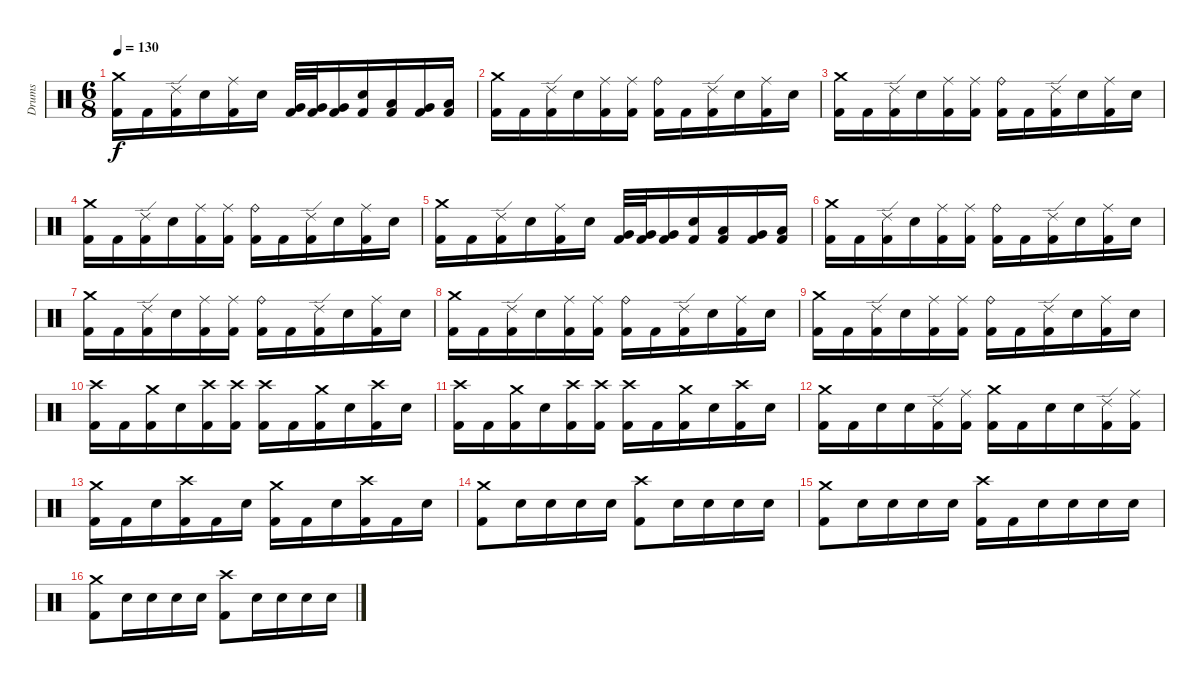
\track ("Drums" "Drums") {instrument percussion}
\staff {score}
\articulation defaults
\ts (6 8)
\tempo 130
\clef neutral
\ks c
("Crash medium (hit)" "Kick (hit) 2").16{dy f} "Kick (hit) 2".16 ("Ride (edge) 2" "Kick (hit) 2").16 "Electric Snare (hit)".16 ("Ride (middle)" "Kick (hit) 2").16 "Electric Snare (hit)".16 ("Very Low Tom (hit)" "Kick (hit) 2").32 ("Very Low Tom (hit)" "Kick (hit) 2").32 ("Very Low Tom (hit)" "Kick (hit) 2").16 ("Electric Snare (hit)" "Kick (hit) 2").16 ("Low Tom (hit)" "Kick (hit) 2").16 ("Very Low Tom (hit)" "Kick (hit) 2").16 ("Low Floor Tom (hit)" "Kick (hit) 2").16 |
("Crash medium (hit)" "Kick (hit) 2").16 "Kick (hit) 2".16 ("Ride (edge) 2" "Kick (hit) 2").16 "Electric Snare (hit)".16 ("Ride (middle)" "Kick (hit) 2").16 ("Ride (middle)" "Kick (hit) 2").16 ("Ride (bell)" "Kick (hit) 2").16 "Kick (hit) 2".16 ("Ride (edge) 2" "Kick (hit) 2").16 "Electric Snare (hit)".16 ("Ride (middle)" "Kick (hit) 2").16 "Electric Snare (hit)".16 |
("Crash medium (hit)" "Kick (hit) 2").16 "Kick (hit) 2".16 ("Ride (edge) 2" "Kick (hit) 2").16 "Electric Snare (hit)".16 ("Ride (middle)" "Kick (hit) 2").16 ("Ride (middle)" "Kick (hit) 2").16 ("Ride (bell)" "Kick (hit) 2").16 "Kick (hit) 2".16 ("Ride (edge) 2" "Kick (hit) 2").16 "Electric Snare (hit)".16 ("Ride (middle)" "Kick (hit) 2").16 "Electric Snare (hit)".16 |
("Crash medium (hit)" "Kick (hit) 2").16 "Kick (hit) 2".16 ("Ride (edge) 2" "Kick (hit) 2").16 "Electric Snare (hit)".16 ("Ride (middle)" "Kick (hit) 2").16 ("Ride (middle)" "Kick (hit) 2").16 ("Ride (bell)" "Kick (hit) 2").16 "Kick (hit) 2".16 ("Ride (edge) 2" "Kick (hit) 2").16 "Electric Snare (hit)".16 ("Ride (middle)" "Kick (hit) 2").16 "Electric Snare (hit)".16 |
("Crash medium (hit)" "Kick (hit) 2").16 "Kick (hit) 2".16 ("Ride (edge) 2" "Kick (hit) 2").16 "Electric Snare (hit)".16 ("Ride (middle)" "Kick (hit) 2").16 "Electric Snare (hit)".16 ("Very Low Tom (hit)" "Kick (hit) 2").32 ("Very Low Tom (hit)" "Kick (hit) 2").32 ("Very Low Tom (hit)" "Kick (hit) 2").16 ("Electric Snare (hit)" "Kick (hit) 2").16 ("Low Tom (hit)" "Kick (hit) 2").16 ("Very Low Tom (hit)" "Kick (hit) 2").16 ("Low Floor Tom (hit)" "Kick (hit) 2").16 |
("Crash medium (hit)" "Kick (hit) 2").16 "Kick (hit) 2".16 ("Ride (edge) 2" "Kick (hit) 2").16 "Electric Snare (hit)".16 ("Ride (middle)" "Kick (hit) 2").16 ("Ride (middle)" "Kick (hit) 2").16 ("Ride (bell)" "Kick (hit) 2").16 "Kick (hit) 2".16 ("Ride (edge) 2" "Kick (hit) 2").16 "Electric Snare (hit)".16 ("Ride (middle)" "Kick (hit) 2").16 "Electric Snare (hit)".16 |
("Crash medium (hit)" "Kick (hit) 2").16 "Kick (hit) 2".16 ("Ride (edge) 2" "Kick (hit) 2").16 "Electric Snare (hit)".16 ("Ride (middle)" "Kick (hit) 2").16 ("Ride (middle)" "Kick (hit) 2").16 ("Ride (bell)" "Kick (hit) 2").16 "Kick (hit) 2".16 ("Ride (edge) 2" "Kick (hit) 2").16 "Electric Snare (hit)".16 ("Ride (middle)" "Kick (hit) 2").16 "Electric Snare (hit)".16 |
("Crash medium (hit)" "Kick (hit) 2").16 "Kick (hit) 2".16 ("Ride (edge) 2" "Kick (hit) 2").16 "Electric Snare (hit)".16 ("Ride (middle)" "Kick (hit) 2").16 ("Ride (middle)" "Kick (hit) 2").16 ("Ride (bell)" "Kick (hit) 2").16 "Kick (hit) 2".16 ("Ride (edge) 2" "Kick (hit) 2").16 "Electric Snare (hit)".16 ("Ride (middle)" "Kick (hit) 2").16 "Electric Snare (hit)".16 |
("Crash medium (hit)" "Kick (hit) 2").16 "Kick (hit) 2".16 ("Ride (edge) 2" "Kick (hit) 2").16 "Electric Snare (hit)".16 ("Ride (middle)" "Kick (hit) 2").16 ("Ride (middle)" "Kick (hit) 2").16 ("Ride (bell)" "Kick (hit) 2").16 "Kick (hit) 2".16 ("Ride (edge) 2" "Kick (hit) 2").16 "Electric Snare (hit)".16 ("Ride (middle)" "Kick (hit) 2").16 "Electric Snare (hit)".16 |
("Crash high (hit)" "Kick (hit) 2").16 "Kick (hit) 2".16 ("Crash medium (hit)" "Kick (hit) 2").16 "Electric Snare (hit)".16 ("Crash high (hit)" "Kick (hit) 2").16 ("Crash high (hit)" "Kick (hit) 2").16 ("Crash high (hit)" "Kick (hit) 2").16 "Kick (hit) 2".16 ("Crash medium (hit)" "Kick (hit) 2").16 "Electric Snare (hit)".16 ("Crash high (hit)" "Kick (hit) 2").16 "Electric Snare (hit)".16 |
("Crash high (hit)" "Kick (hit) 2").16 "Kick (hit) 2".16 ("Crash medium (hit)" "Kick (hit) 2").16 "Electric Snare (hit)".16 ("Crash high (hit)" "Kick (hit) 2").16 ("Crash high (hit)" "Kick (hit) 2").16 ("Crash high (hit)" "Kick (hit) 2").16 "Kick (hit) 2".16 ("Crash medium (hit)" "Kick (hit) 2").16 "Electric Snare (hit)".16 ("Crash high (hit)" "Kick (hit) 2").16 "Electric Snare (hit)".16 |
("Crash medium (hit)" "Kick (hit) 2").16 "Kick (hit) 2".16 "Electric Snare (hit)".16 "Electric Snare (hit)".16 ("Ride (edge) 2" "Kick (hit) 2").16 ("Ride (middle)" "Kick (hit) 2").16 ("Crash medium (hit)" "Kick (hit) 2").16 "Kick (hit) 2".16 "Electric Snare (hit)".16 "Electric Snare (hit)".16 ("Ride (edge) 2" "Kick (hit) 2").16 ("Ride (middle)" "Kick (hit) 2").16 |
("Crash medium (hit)" "Kick (hit) 2").16 "Kick (hit) 2".16 "Electric Snare (hit)".16 ("Crash high (hit)" "Kick (hit) 2").16 "Kick (hit) 2".16 "Electric Snare (hit)".16 ("Crash medium (hit)" "Kick (hit) 2").16 "Kick (hit) 2".16 "Electric Snare (hit)".16 ("Crash high (hit)" "Kick (hit) 2").16 "Kick (hit) 2".16 "Electric Snare (hit)".16 |
\section ("" "")
("Crash medium (hit)" "Kick (hit) 2").8 "Electric Snare (hit)".16 "Electric Snare (hit)".16 "Electric Snare (hit)".16 "Electric Snare (hit)".16 ("Crash high (hit)" "Kick (hit) 2").8 "Electric Snare (hit)".16 "Electric Snare (hit)".16 "Electric Snare (hit)".16 "Electric Snare (hit)".16 |
("Crash medium (hit)" "Kick (hit) 2").8 "Electric Snare (hit)".16 "Electric Snare (hit)".16 "Electric Snare (hit)".16 "Electric Snare (hit)".16 ("Crash high (hit)" "Kick (hit) 2").16 "Kick (hit) 2".16 "Electric Snare (hit)".16 "Electric Snare (hit)".16 "Electric Snare (hit)".16 "Electric Snare (hit)".16 |
("Crash medium (hit)" "Kick (hit) 2").8 "Electric Snare (hit)".16 "Electric Snare (hit)".16 "Electric Snare (hit)".16 "Electric Snare (hit)".16 ("Crash high (hit)" "Kick (hit) 2").8 "Electric Snare (hit)".16 "Electric Snare (hit)".16 "Electric Snare (hit)".16 "Electric Snare (hit)".16
